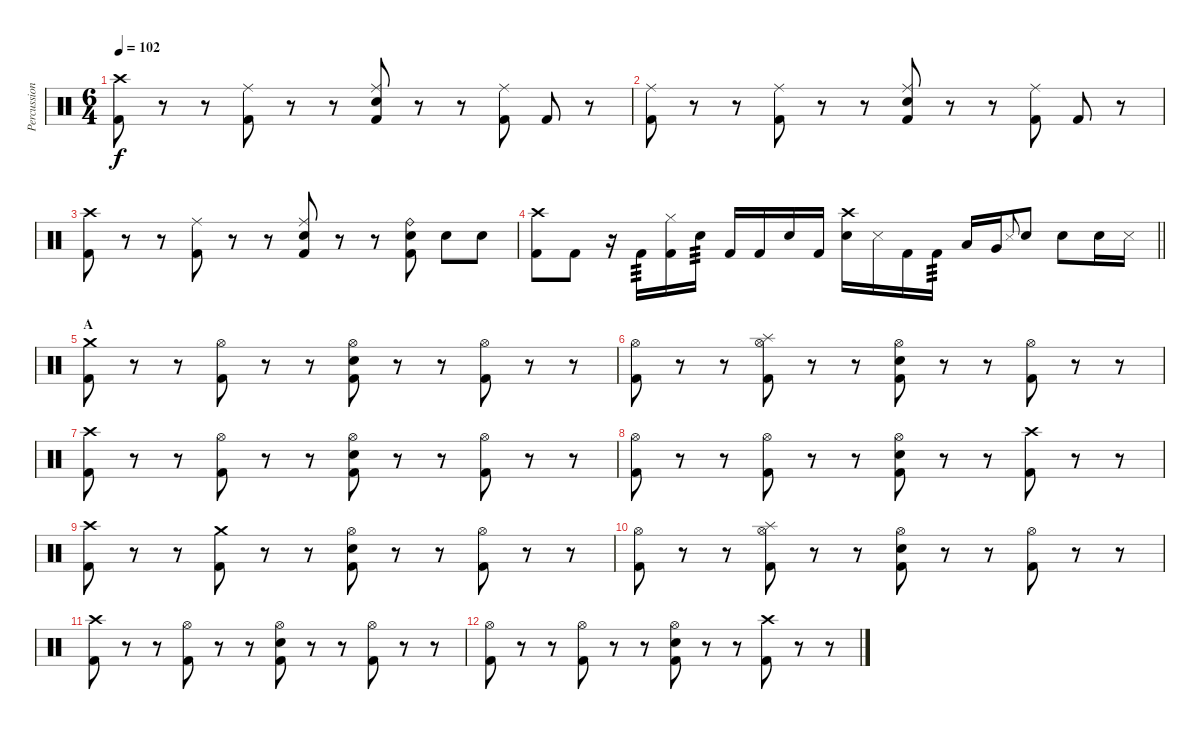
\track ("Percussion" "Percussion") {instrument percussion}
\staff {score}
\articulation defaults
\ts (6 4)
\tempo 102
\clef neutral
\ks c
("Crash high (hit)" "Kick (hit) 2").8{dy f} r.8 r.8 ("Ride (middle)" "Kick (hit) 2").8 r.8 r.8 ("Ride (middle)" "Snare (hit) 2" "Kick (hit) 2").8 r.8 r.8 ("Ride (middle)" "Kick (hit) 2").8 "Kick (hit) 2".8 r.8 |
("Ride (middle)" "Kick (hit) 2").8 r.8 r.8 ("Ride (middle)" "Kick (hit) 2").8 r.8 r.8 ("Ride (middle)" "Snare (hit) 2" "Kick (hit) 2").8 r.8 r.8 ("Ride (middle)" "Kick (hit) 2").8 "Kick (hit) 2".8 r.8 |
("Crash high (hit)" "Kick (hit) 2").8 r.8 r.8 ("Ride (middle)" "Kick (hit) 2").8 r.8 r.8 ("Ride (middle)" "Snare (hit) 2" "Kick (hit) 2").8 r.8 r.8 ("Ride (bell)" "Snare (hit) 2" "Kick (hit) 2").8 "Snare (hit) 2".8 "Snare (hit)".8 |
\barLineRight lightlight
("Crash high (hit)" "Kick (hit) 2").8 "Kick (hit) 2".8 r.16 "Kick (hit) 2".16{tp 3} ("Hi-Hat (closed)" "Kick (hit) 2").16 "Snare (hit) 2".16{tp 3} "Kick (hit) 2".16 "Kick (hit) 2".16 "Snare (hit) 2".16 "Kick (hit) 2".16 ("Crash high (hit)" "Snare (hit) 2").16 "Metronome (hit)".16 "Kick (hit) 2".16 "Kick (hit) 2".16{tp 3} "Low Tom (hit)".16 "Very Low Tom (hit)".16 "Metronome (hit)".8{gr onbeat} "Snare (hit) 2".8 "Snare (hit) 2".8 "Snare (hit) 2".16 "Metronome (hit)".16 |
\section ("" "A")
("Crash medium (hit)" "Kick (hit) 2").8 r.8 r.8 ("Hi-Hat (open)" "Kick (hit) 2").8 r.8 r.8 ("Hi-Hat (open)" "Snare (hit) 2" "Kick (hit) 2").8 r.8 r.8 ("Hi-Hat (open)" "Kick (hit) 2").8 r.8 r.8 |
("Hi-Hat (open)" "Kick (hit) 2").8 r.8 r.8 ("Hi-Hat (open)" "Splash (hit)" "Kick (hit) 2").8 r.8 r.8 ("Hi-Hat (open)" "Snare (hit) 2" "Kick (hit) 2").8 r.8 r.8 ("Hi-Hat (open)" "Kick (hit) 2").8 r.8 r.8 |
("Crash high (hit)" "Kick (hit) 2").8 r.8 r.8 ("Hi-Hat (open)" "Kick (hit) 2").8 r.8 r.8 ("Hi-Hat (open)" "Snare (hit) 2" "Kick (hit) 2").8 r.8 r.8 ("Hi-Hat (open)" "Kick (hit) 2").8 r.8 r.8 |
("Hi-Hat (open)" "Kick (hit) 2").8 r.8 r.8 ("Hi-Hat (open)" "Kick (hit) 2").8 r.8 r.8 ("Hi-Hat (open)" "Snare (hit) 2" "Kick (hit) 2").8 r.8 r.8 ("Crash high (hit)" "Kick (hit) 2").8 r.8 r.8 |
("Crash high (hit)" "Kick (hit) 2").8 r.8 r.8 ("Crash medium (hit)" "Kick (hit) 2").8 r.8 r.8 ("Hi-Hat (open)" "Snare (hit) 2" "Kick (hit) 2").8 r.8 r.8 ("Hi-Hat (open)" "Kick (hit) 2").8 r.8 r.8 |
("Hi-Hat (open)" "Kick (hit) 2").8 r.8 r.8 ("Hi-Hat (open)" "Splash (hit)" "Kick (hit) 2").8 r.8 r.8 ("Hi-Hat (open)" "Snare (hit) 2" "Kick (hit) 2").8 r.8 r.8 ("Hi-Hat (open)" "Kick (hit) 2").8 r.8 r.8 |
("Crash high (hit)" "Kick (hit) 2").8 r.8 r.8 ("Hi-Hat (open)" "Kick (hit) 2").8 r.8 r.8 ("Hi-Hat (open)" "Snare (hit) 2" "Kick (hit) 2").8 r.8 r.8 ("Hi-Hat (open)" "Kick (hit) 2").8 r.8 r.8 |
("Hi-Hat (open)" "Kick (hit) 2").8 r.8 r.8 ("Hi-Hat (open)" "Kick (hit) 2").8 r.8 r.8 ("Hi-Hat (open)" "Snare (hit) 2" "Kick (hit) 2").8 r.8 r.8 ("Crash high (hit)" "Kick (hit) 2").8 r.8 r.8
